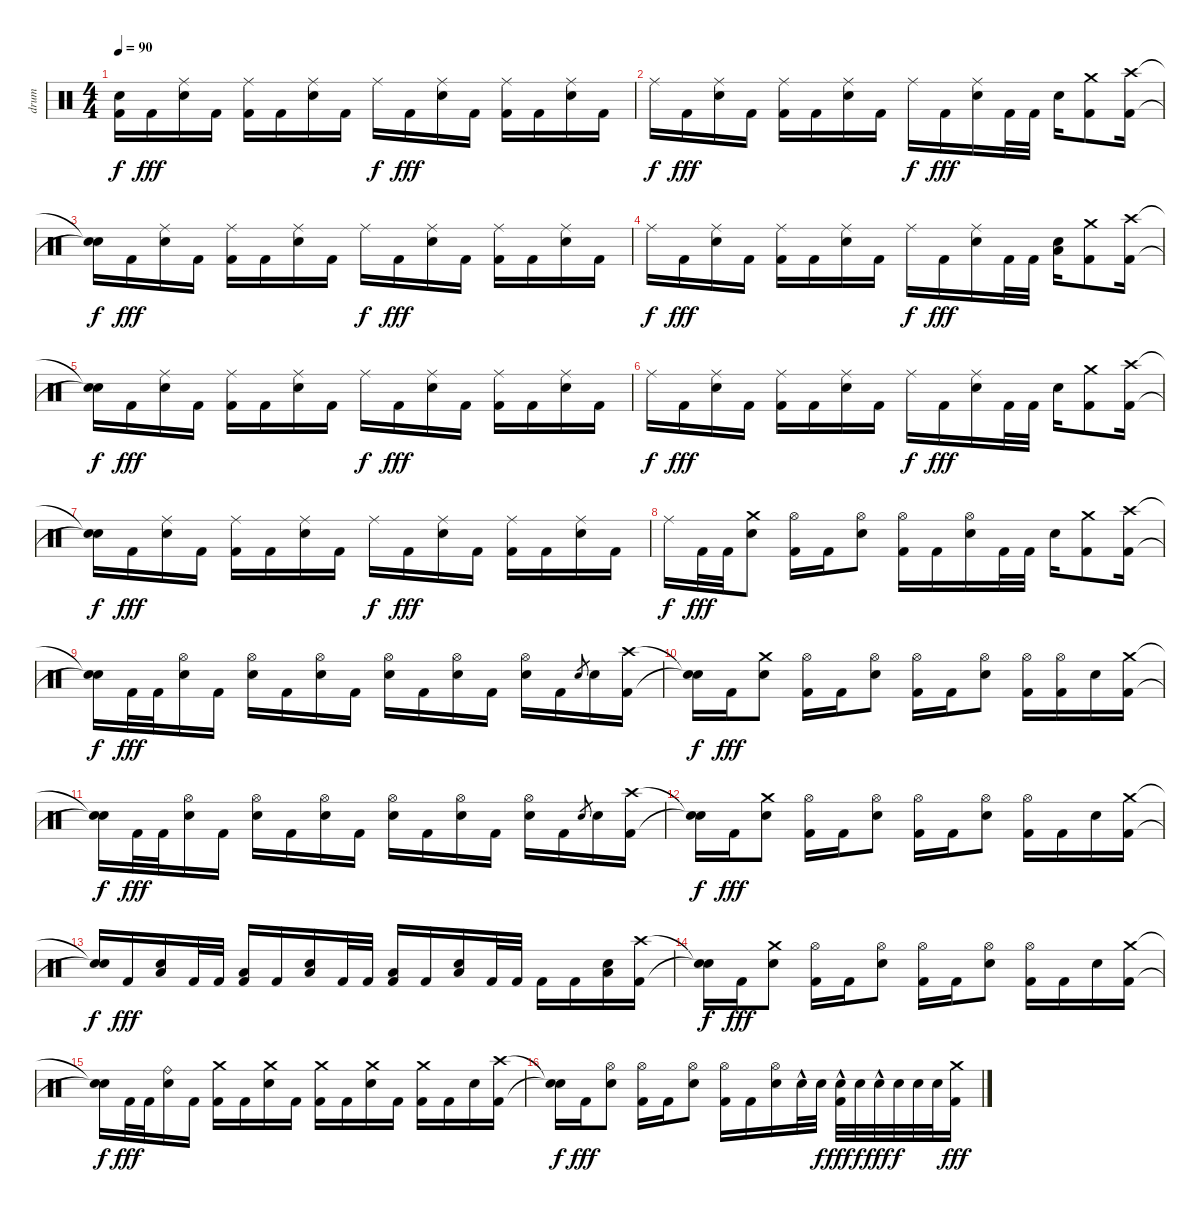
\track ("drum" "drum") {instrument percussion}
\staff {score}
\articulation defaults
\ts (4 4)
\tempo 90
\clef neutral
\ks c
("Snare (hit)"{t} "Kick (hit) 2"{t}).16{dy f} "Kick (hit) 2".16{dy fff} ("Ride (middle)" "Electric Snare (hit)").16 "Kick (hit) 2".16 ("Ride (middle)" "Kick (hit) 2").16 "Kick (hit) 2".16 ("Ride (middle)" "Electric Snare (hit)").16 "Kick (hit) 2".16 "Ride (middle)".16{dy f} "Kick (hit) 2".16{dy fff} ("Ride (middle)" "Electric Snare (hit)").16 "Kick (hit) 2".16 ("Ride (middle)" "Kick (hit) 2").16 "Kick (hit) 2".16 ("Ride (middle)" "Electric Snare (hit)").16 "Kick (hit) 2".16 |
"Ride (middle)".16{dy f} "Kick (hit) 2".16{dy fff} ("Ride (middle)" "Electric Snare (hit)").16 "Kick (hit) 2".16 ("Ride (middle)" "Kick (hit) 2").16 "Kick (hit) 2".16 ("Ride (middle)" "Electric Snare (hit)").16 "Kick (hit) 2".16 "Ride (middle)".16{dy f} "Kick (hit) 2".16{dy fff} ("Ride (middle)" "Electric Snare (hit)").16 "Kick (hit) 2".32 "Kick (hit) 2".32 "Electric Snare (hit)".16 ("Crash medium (hit)" "Kick (hit) 2").8 ("Crash high (hit)" "Kick (hit) 2").16 |
("Snare (hit)"{t} "Snare (hit)"{t}).16{dy f} "Kick (hit) 2".16{dy fff} ("Ride (middle)" "Electric Snare (hit)").16 "Kick (hit) 2".16 ("Ride (middle)" "Kick (hit) 2").16 "Kick (hit) 2".16 ("Ride (middle)" "Electric Snare (hit)").16 "Kick (hit) 2".16 "Ride (middle)".16{dy f} "Kick (hit) 2".16{dy fff} ("Ride (middle)" "Electric Snare (hit)").16 "Kick (hit) 2".16 ("Ride (middle)" "Kick (hit) 2").16 "Kick (hit) 2".16 ("Ride (middle)" "Electric Snare (hit)").16 "Kick (hit) 2".16 |
"Ride (middle)".16{dy f} "Kick (hit) 2".16{dy fff} ("Ride (middle)" "Electric Snare (hit)").16 "Kick (hit) 2".16 ("Ride (middle)" "Kick (hit) 2").16 "Kick (hit) 2".16 ("Ride (middle)" "Electric Snare (hit)").16 "Kick (hit) 2".16 "Ride (middle)".16{dy f} "Kick (hit) 2".16{dy fff} ("Ride (middle)" "Electric Snare (hit)").16 "Kick (hit) 2".32 "Kick (hit) 2".32 ("Electric Snare (hit)" "Low Floor Tom (hit)").16 ("Crash medium (hit)" "Kick (hit) 2").8 ("Crash high (hit)" "Kick (hit) 2").16 |
("Snare (hit)"{t} "Snare (hit)"{t}).16{dy f} "Kick (hit) 2".16{dy fff} ("Ride (middle)" "Electric Snare (hit)").16 "Kick (hit) 2".16 ("Ride (middle)" "Kick (hit) 2").16 "Kick (hit) 2".16 ("Ride (middle)" "Electric Snare (hit)").16 "Kick (hit) 2".16 "Ride (middle)".16{dy f} "Kick (hit) 2".16{dy fff} ("Ride (middle)" "Electric Snare (hit)").16 "Kick (hit) 2".16 ("Ride (middle)" "Kick (hit) 2").16 "Kick (hit) 2".16 ("Ride (middle)" "Electric Snare (hit)").16 "Kick (hit) 2".16 |
"Ride (middle)".16{dy f} "Kick (hit) 2".16{dy fff} ("Ride (middle)" "Electric Snare (hit)").16 "Kick (hit) 2".16 ("Ride (middle)" "Kick (hit) 2").16 "Kick (hit) 2".16 ("Ride (middle)" "Electric Snare (hit)").16 "Kick (hit) 2".16 "Ride (middle)".16{dy f} "Kick (hit) 2".16{dy fff} ("Ride (middle)" "Electric Snare (hit)").16 "Kick (hit) 2".32 "Kick (hit) 2".32 "Electric Snare (hit)".16 ("Crash medium (hit)" "Kick (hit) 2").8 ("Crash high (hit)" "Kick (hit) 2").16 |
("Snare (hit)"{t} "Snare (hit)"{t}).16{dy f} "Kick (hit) 2".16{dy fff} ("Ride (middle)" "Electric Snare (hit)").16 "Kick (hit) 2".16 ("Ride (middle)" "Kick (hit) 2").16 "Kick (hit) 2".16 ("Ride (middle)" "Electric Snare (hit)").16 "Kick (hit) 2".16 "Ride (middle)".16{dy f} "Kick (hit) 2".16{dy fff} ("Ride (middle)" "Electric Snare (hit)").16 "Kick (hit) 2".16 ("Ride (middle)" "Kick (hit) 2").16 "Kick (hit) 2".16 ("Ride (middle)" "Electric Snare (hit)").16 "Kick (hit) 2".16 |
"Ride (middle)".16{dy f} "Kick (hit) 2".32{dy fff} "Kick (hit) 2".32 ("Crash medium (hit)" "Electric Snare (hit)").8 ("Hi-Hat (open)" "Kick (hit) 2").16 "Kick (hit) 2".16 ("Hi-Hat (open)" "Electric Snare (hit)").8 ("Hi-Hat (open)" "Kick (hit) 2").16 "Kick (hit) 2".16 ("Hi-Hat (open)" "Electric Snare (hit)").16 "Kick (hit) 2".32 "Kick (hit) 2".32 "Electric Snare (hit)".16 ("Crash medium (hit)" "Kick (hit) 2").8 ("Crash high (hit)" "Kick (hit) 2").16 |
("Snare (hit)"{t} "Snare (hit)"{t}).16{dy f} "Kick (hit) 2".32{dy fff} "Kick (hit) 2".32 ("Hi-Hat (open)" "Electric Snare (hit)").16 "Kick (hit) 2".16 ("Hi-Hat (open)" "Electric Snare (hit)").16 "Kick (hit) 2".16 ("Hi-Hat (open)" "Electric Snare (hit)").16 "Kick (hit) 2".16 ("Hi-Hat (open)" "Electric Snare (hit)").16 "Kick (hit) 2".16 ("Hi-Hat (open)" "Electric Snare (hit)").16 "Kick (hit) 2".16 ("Hi-Hat (open)" "Electric Snare (hit)").16 "Kick (hit) 2".16 "Electric Snare (hit)".8{gr} "Electric Snare (hit)".16 ("Crash high (hit)" "Kick (hit) 2").16 |
("Snare (hit)"{t} "Snare (hit)"{t}).16{dy f} "Kick (hit) 2".16{dy fff} ("Crash medium (hit)" "Electric Snare (hit)").8 ("Hi-Hat (open)" "Kick (hit) 2").16 "Kick (hit) 2".16 ("Hi-Hat (open)" "Electric Snare (hit)").8 ("Hi-Hat (open)" "Kick (hit) 2").16 "Kick (hit) 2".16 ("Hi-Hat (open)" "Electric Snare (hit)").8 ("Hi-Hat (open)" "Kick (hit) 2").16 ("Hi-Hat (open)" "Kick (hit) 2").16 "Electric Snare (hit)".16 ("Crash medium (hit)" "Kick (hit) 2").16 |
("Snare (hit)"{t} "Snare (hit)"{t}).16{dy f} "Kick (hit) 2".32{dy fff} "Kick (hit) 2".32 ("Hi-Hat (open)" "Electric Snare (hit)").16 "Kick (hit) 2".16 ("Hi-Hat (open)" "Electric Snare (hit)").16 "Kick (hit) 2".16 ("Hi-Hat (open)" "Electric Snare (hit)").16 "Kick (hit) 2".16 ("Hi-Hat (open)" "Electric Snare (hit)").16 "Kick (hit) 2".16 ("Hi-Hat (open)" "Electric Snare (hit)").16 "Kick (hit) 2".16 ("Hi-Hat (open)" "Electric Snare (hit)").16 "Kick (hit) 2".16 "Electric Snare (hit)".8{gr} "Electric Snare (hit)".16 ("Crash high (hit)" "Kick (hit) 2").16 |
("Snare (hit)"{t} "Snare (hit)"{t}).16{dy f} "Kick (hit) 2".16{dy fff} ("Crash medium (hit)" "Electric Snare (hit)").8 ("Hi-Hat (open)" "Kick (hit) 2").16 "Kick (hit) 2".16 ("Hi-Hat (open)" "Electric Snare (hit)").8 ("Hi-Hat (open)" "Kick (hit) 2").16 "Kick (hit) 2".16 ("Hi-Hat (open)" "Electric Snare (hit)").8 ("Hi-Hat (open)" "Kick (hit) 2").16 "Kick (hit) 2".16 "Electric Snare (hit)".16 ("Crash medium (hit)" "Kick (hit) 2").16 |
("Snare (hit)"{t} "Snare (hit)"{t}).16{dy f} "Kick (hit) 2".16{dy fff} ("Electric Snare (hit)" "Low Floor Tom (hit)").16 "Kick (hit) 2".32 "Kick (hit) 2".32 ("Low Floor Tom (hit)" "Kick (hit) 2").16 "Kick (hit) 2".16 ("Electric Snare (hit)" "Low Floor Tom (hit)").16 "Kick (hit) 2".32 "Kick (hit) 2".32 ("Low Floor Tom (hit)" "Kick (hit) 2").16 "Kick (hit) 2".16 ("Electric Snare (hit)" "Low Floor Tom (hit)").16 "Kick (hit) 2".32 "Kick (hit) 2".32 "Kick (hit) 2".16 "Kick (hit) 2".16 ("Electric Snare (hit)" "Low Floor Tom (hit)").16 ("Crash high (hit)" "Kick (hit) 2").16 |
("Snare (hit)"{t} "Snare (hit)"{t}).16{dy f} "Kick (hit) 2".16{dy fff} ("Crash medium (hit)" "Electric Snare (hit)").8 ("Hi-Hat (open)" "Kick (hit) 2").16 "Kick (hit) 2".16 ("Hi-Hat (open)" "Electric Snare (hit)").8 ("Hi-Hat (open)" "Kick (hit) 2").16 "Kick (hit) 2".16 ("Hi-Hat (open)" "Electric Snare (hit)").8 ("Hi-Hat (open)" "Kick (hit) 2").16 "Kick (hit) 2".16 "Electric Snare (hit)".16 ("Crash medium (hit)" "Kick (hit) 2").16 |
("Snare (hit)"{t} "Snare (hit)"{t}).16{dy f} "Kick (hit) 2".32{dy fff} "Kick (hit) 2".32 ("Ride (bell)" "Electric Snare (hit)").16 "Kick (hit) 2".16 ("Crash medium (hit)" "Kick (hit) 2").16 "Kick (hit) 2".16 ("Crash medium (hit)" "Electric Snare (hit)").16 "Kick (hit) 2".16 ("Crash medium (hit)" "Kick (hit) 2").16 "Kick (hit) 2".16 ("Crash medium (hit)" "Electric Snare (hit)").16 "Kick (hit) 2".16 ("Crash medium (hit)" "Kick (hit) 2").16 "Kick (hit) 2".16 "Electric Snare (hit)".16 ("Crash high (hit)" "Kick (hit) 2").16 |
("Snare (hit)"{t} "Snare (hit)"{t}).16{dy f} "Kick (hit) 2".16{dy fff} ("Hi-Hat (open)" "Electric Snare (hit)").8 ("Hi-Hat (open)" "Kick (hit) 2").16 "Kick (hit) 2".16 ("Hi-Hat (open)" "Electric Snare (hit)").8 ("Hi-Hat (open)" "Kick (hit) 2").16 "Kick (hit) 2".16 ("Hi-Hat (open)" "Electric Snare (hit)").16 "Electric Snare (hit)"{hac}.32 "Electric Snare (hit)".32{dy f} ("Electric Snare (hit)"{hac} "Kick (hit) 2").32{dy fff} "Electric Snare (hit)".32{dy f} "Electric Snare (hit)"{hac}.32{dy fff} "Electric Snare (hit)".32{dy f} "Electric Snare (hit)".32 "Electric Snare (hit)".32 ("Crash medium (hit)" "Kick (hit) 2").16{dy fff}
